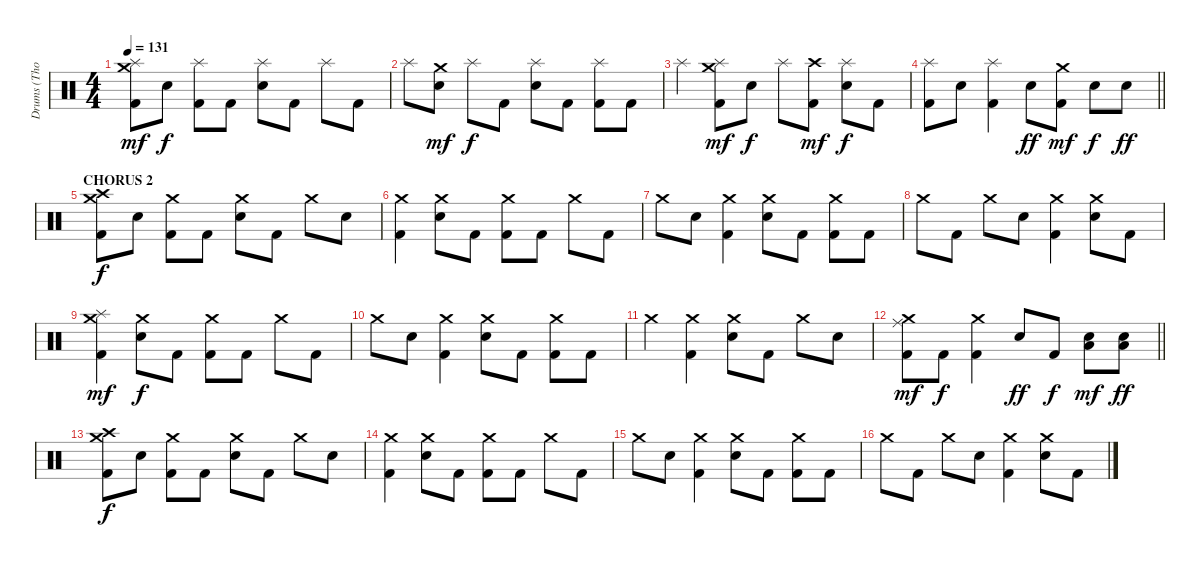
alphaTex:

\track ("Drums (Thomas Haake)" "Drums (Tho") {instrument percussion}
\staff {score}
\articulation defaults
\ts (4 4)
\tempo 131
\clef neutral
\ks c
("Splash (hit)" "Crash medium (hit)" "Kick (hit) 2").8{dy mf} "Electric Snare (hit)".8{dy f} ("Splash (hit)" "Kick (hit) 2").8 "Kick (hit) 2".8 ("Splash (hit)" "Electric Snare (hit)").8 "Kick (hit) 2".8 "Splash (hit)".8 "Kick (hit) 2".8 |
"Splash (hit)".8 ("Crash medium (hit)" "Electric Snare (hit)").8{dy mf} "Splash (hit)".8{dy f} "Kick (hit) 2".8 ("Splash (hit)" "Electric Snare (hit)").8 "Kick (hit) 2".8 ("Splash (hit)" "Kick (hit) 2").8 "Kick (hit) 2".8 |
"Splash (hit)".4 ("Splash (hit)" "Crash medium (hit)" "Kick (hit) 2").8{dy mf} "Electric Snare (hit)".8{dy f} "Splash (hit)".8 ("Crash high (hit)" "Kick (hit) 2").8{dy mf} ("Splash (hit)" "Electric Snare (hit)").8{dy f} "Kick (hit) 2".8 |
\barLineRight lightlight
("Splash (hit)" "Kick (hit) 2").8 "Electric Snare (hit)".8 ("Splash (hit)" "Kick (hit) 2").4 "Electric Snare (hit)".8{dy ff} ("Crash medium (hit)" "Kick (hit) 2").8{dy mf} "Electric Snare (hit)".8{dy f} "Electric Snare (hit)".8{dy ff} |
\section ("" "CHORUS 2")
("Crash medium (hit)" "Crash high (hit)" "Kick (hit) 2").8{dy f} "Electric Snare (hit)".8 ("Crash medium (hit)" "Kick (hit) 2").8 "Kick (hit) 2".8 ("Crash medium (hit)" "Electric Snare (hit)").8 "Kick (hit) 2".8 "Crash medium (hit)".8 "Electric Snare (hit)".8 |
("Crash medium (hit)" "Kick (hit) 2").4 ("Crash medium (hit)" "Electric Snare (hit)").8 "Kick (hit) 2".8 ("Crash medium (hit)" "Kick (hit) 2").8 "Kick (hit) 2".8 "Crash medium (hit)".8 "Kick (hit) 2".8 |
"Crash medium (hit)".8 "Electric Snare (hit)".8 ("Crash medium (hit)" "Kick (hit) 2").4 ("Crash medium (hit)" "Electric Snare (hit)").8 "Kick (hit) 2".8 ("Crash medium (hit)" "Kick (hit) 2").8 "Kick (hit) 2".8 |
"Crash medium (hit)".8 "Kick (hit) 2".8 "Crash medium (hit)".8 "Electric Snare (hit)".8 ("Crash medium (hit)" "Kick (hit) 2").4 ("Crash medium (hit)" "Electric Snare (hit)").8 "Kick (hit) 2".8 |
("Crash medium (hit)" "Splash (hit)" "Kick (hit) 2").4{dy mf} ("Crash medium (hit)" "Electric Snare (hit)").8{dy f} "Kick (hit) 2".8 ("Crash medium (hit)" "Kick (hit) 2").8 "Kick (hit) 2".8 "Crash medium (hit)".8 "Kick (hit) 2".8 |
"Crash medium (hit)".8 "Electric Snare (hit)".8 ("Crash medium (hit)" "Kick (hit) 2").4 ("Crash medium (hit)" "Electric Snare (hit)").8 "Kick (hit) 2".8 ("Crash medium (hit)" "Kick (hit) 2").8 "Kick (hit) 2".8 |
"Crash medium (hit)".4 ("Crash medium (hit)" "Kick (hit) 2").4 ("Crash medium (hit)" "Electric Snare (hit)").8 "Kick (hit) 2".8 "Crash medium (hit)".8 "Electric Snare (hit)".8 |
\barLineRight lightlight
("Crash medium (hit)" "Ride (middle)" "Kick (hit) 2").8{dy mf} "Kick (hit) 2".8{dy f} ("Crash medium (hit)" "Kick (hit) 2").4 "Electric Snare (hit)".8{dy ff} "Kick (hit) 2".8{dy f} ("Low Floor Tom (hit)" "Electric Snare (hit)").8{dy mf} ("Low Floor Tom (hit)" "Electric Snare (hit)").8{dy ff} |
("Crash medium (hit)" "Crash high (hit)" "Kick (hit) 2").8{dy f} "Electric Snare (hit)".8 ("Crash medium (hit)" "Kick (hit) 2").8 "Kick (hit) 2".8 ("Crash medium (hit)" "Electric Snare (hit)").8 "Kick (hit) 2".8 "Crash medium (hit)".8 "Electric Snare (hit)".8 |
("Crash medium (hit)" "Kick (hit) 2").4 ("Crash medium (hit)" "Electric Snare (hit)").8 "Kick (hit) 2".8 ("Crash medium (hit)" "Kick (hit) 2").8 "Kick (hit) 2".8 "Crash medium (hit)".8 "Kick (hit) 2".8 |
"Crash medium (hit)".8 "Electric Snare (hit)".8 ("Crash medium (hit)" "Kick (hit) 2").4 ("Crash medium (hit)" "Electric Snare (hit)").8 "Kick (hit) 2".8 ("Crash medium (hit)" "Kick (hit) 2").8 "Kick (hit) 2".8 |
"Crash medium (hit)".8 "Kick (hit) 2".8 "Crash medium (hit)".8 "Electric Snare (hit)".8 ("Crash medium (hit)" "Kick (hit) 2").4 ("Crash medium (hit)" "Electric Snare (hit)").8 "Kick (hit) 2".8
